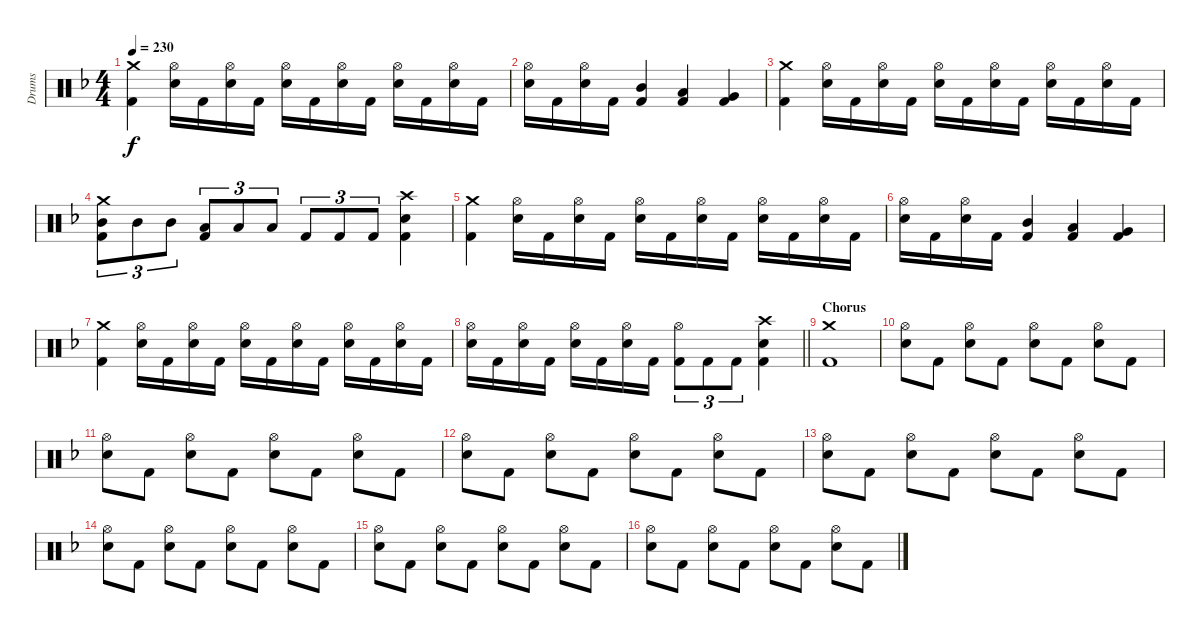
\track ("Drums" "Drums") {instrument percussion}
\staff {score}
\articulation defaults
\ts (4 4)
\tempo 230
\clef neutral
\ks f
("Crash medium (hit)" "Kick (hit) 2").4{dy f} ("Hi-Hat (open)" "Snare (hit) 2").16 "Kick (hit) 2".16 ("Hi-Hat (open)" "Snare (hit) 2").16 "Kick (hit) 2".16 ("Hi-Hat (open)" "Snare (hit) 2").16 "Kick (hit) 2".16 ("Hi-Hat (open)" "Snare (hit) 2").16 "Kick (hit) 2".16 ("Hi-Hat (open)" "Snare (hit) 2").16 "Kick (hit) 2".16 ("Hi-Hat (open)" "Snare (hit) 2").16 "Kick (hit) 2".16 |
("Hi-Hat (open)" "Snare (hit) 2").16 "Kick (hit) 2".16 ("Hi-Hat (open)" "Snare (hit) 2").16 "Kick (hit) 2".16 ("Mid Tom (hit)" "Kick (hit) 2").4 ("Low Tom (hit)" "Kick (hit) 2").4 ("Very Low Tom (hit)" "Kick (hit) 2").4 |
("Crash medium (hit)" "Kick (hit) 2").4 ("Hi-Hat (open)" "Snare (hit) 2").16 "Kick (hit) 2".16 ("Hi-Hat (open)" "Snare (hit) 2").16 "Kick (hit) 2".16 ("Hi-Hat (open)" "Snare (hit) 2").16 "Kick (hit) 2".16 ("Hi-Hat (open)" "Snare (hit) 2").16 "Kick (hit) 2".16 ("Hi-Hat (open)" "Snare (hit) 2").16 "Kick (hit) 2".16 ("Hi-Hat (open)" "Snare (hit) 2").16 "Kick (hit) 2".16 |
("Crash medium (hit)" "Mid Tom (hit)" "Kick (hit) 2").8{tu (3 2)} "Mid Tom (hit)".8{tu (3 2)} "Mid Tom (hit)".8{tu (3 2)} ("Low Tom (hit)" "Kick (hit) 2").8{tu (3 2)} "Low Tom (hit)".8{tu (3 2)} "Low Tom (hit)".8{tu (3 2)} "Kick (hit) 2".8{tu (3 2)} "Kick (hit) 2".8{tu (3 2)} "Kick (hit) 2".8{tu (3 2)} ("Crash high (hit)" "Snare (hit) 2" "Kick (hit) 2").4 |
("Crash medium (hit)" "Kick (hit) 2").4 ("Hi-Hat (open)" "Snare (hit) 2").16 "Kick (hit) 2".16 ("Hi-Hat (open)" "Snare (hit) 2").16 "Kick (hit) 2".16 ("Hi-Hat (open)" "Snare (hit) 2").16 "Kick (hit) 2".16 ("Hi-Hat (open)" "Snare (hit) 2").16 "Kick (hit) 2".16 ("Hi-Hat (open)" "Snare (hit) 2").16 "Kick (hit) 2".16 ("Hi-Hat (open)" "Snare (hit) 2").16 "Kick (hit) 2".16 |
("Hi-Hat (open)" "Snare (hit) 2").16 "Kick (hit) 2".16 ("Hi-Hat (open)" "Snare (hit) 2").16 "Kick (hit) 2".16 ("Mid Tom (hit)" "Kick (hit) 2").4 ("Low Tom (hit)" "Kick (hit) 2").4 ("Very Low Tom (hit)" "Kick (hit) 2").4 |
("Crash medium (hit)" "Kick (hit) 2").4 ("Hi-Hat (open)" "Snare (hit) 2").16 "Kick (hit) 2".16 ("Hi-Hat (open)" "Snare (hit) 2").16 "Kick (hit) 2".16 ("Hi-Hat (open)" "Snare (hit) 2").16 "Kick (hit) 2".16 ("Hi-Hat (open)" "Snare (hit) 2").16 "Kick (hit) 2".16 ("Hi-Hat (open)" "Snare (hit) 2").16 "Kick (hit) 2".16 ("Hi-Hat (open)" "Snare (hit) 2").16 "Kick (hit) 2".16 |
\barLineRight lightlight
("Hi-Hat (open)" "Snare (hit) 2").16 "Kick (hit) 2".16 ("Hi-Hat (open)" "Snare (hit) 2").16 "Kick (hit) 2".16 ("Hi-Hat (open)" "Snare (hit) 2").16 "Kick (hit) 2".16 ("Hi-Hat (open)" "Snare (hit) 2").16 "Kick (hit) 2".16 ("Hi-Hat (open)" "Kick (hit) 2").8{tu (3 2)} "Kick (hit) 2".8{tu (3 2)} "Kick (hit) 2".8{tu (3 2)} ("Crash high (hit)" "Snare (hit) 2" "Kick (hit) 2").4 |
\section ("" "Chorus")
("Crash medium (hit)" "Kick (hit) 2").1 |
("Hi-Hat (open)" "Snare (hit) 2").8 "Kick (hit) 2".8 ("Hi-Hat (open)" "Snare (hit) 2").8 "Kick (hit) 2".8 ("Hi-Hat (open)" "Snare (hit) 2").8 "Kick (hit) 2".8 ("Hi-Hat (open)" "Snare (hit) 2").8 "Kick (hit) 2".8 |
("Hi-Hat (open)" "Snare (hit) 2").8 "Kick (hit) 2".8 ("Hi-Hat (open)" "Snare (hit) 2").8 "Kick (hit) 2".8 ("Hi-Hat (open)" "Snare (hit) 2").8 "Kick (hit) 2".8 ("Hi-Hat (open)" "Snare (hit) 2").8 "Kick (hit) 2".8 |
("Hi-Hat (open)" "Snare (hit) 2").8 "Kick (hit) 2".8 ("Hi-Hat (open)" "Snare (hit) 2").8 "Kick (hit) 2".8 ("Hi-Hat (open)" "Snare (hit) 2").8 "Kick (hit) 2".8 ("Hi-Hat (open)" "Snare (hit) 2").8 "Kick (hit) 2".8 |
("Hi-Hat (open)" "Snare (hit) 2").8 "Kick (hit) 2".8 ("Hi-Hat (open)" "Snare (hit) 2").8 "Kick (hit) 2".8 ("Hi-Hat (open)" "Snare (hit) 2").8 "Kick (hit) 2".8 ("Hi-Hat (open)" "Snare (hit) 2").8 "Kick (hit) 2".8 |
("Hi-Hat (open)" "Snare (hit) 2").8 "Kick (hit) 2".8 ("Hi-Hat (open)" "Snare (hit) 2").8 "Kick (hit) 2".8 ("Hi-Hat (open)" "Snare (hit) 2").8 "Kick (hit) 2".8 ("Hi-Hat (open)" "Snare (hit) 2").8 "Kick (hit) 2".8 |
("Hi-Hat (open)" "Snare (hit) 2").8 "Kick (hit) 2".8 ("Hi-Hat (open)" "Snare (hit) 2").8 "Kick (hit) 2".8 ("Hi-Hat (open)" "Snare (hit) 2").8 "Kick (hit) 2".8 ("Hi-Hat (open)" "Snare (hit) 2").8 "Kick (hit) 2".8 |
("Hi-Hat (open)" "Snare (hit) 2").8 "Kick (hit) 2".8 ("Hi-Hat (open)" "Snare (hit) 2").8 "Kick (hit) 2".8 ("Hi-Hat (open)" "Snare (hit) 2").8 "Kick (hit) 2".8 ("Hi-Hat (open)" "Snare (hit) 2").8 "Kick (hit) 2".8
